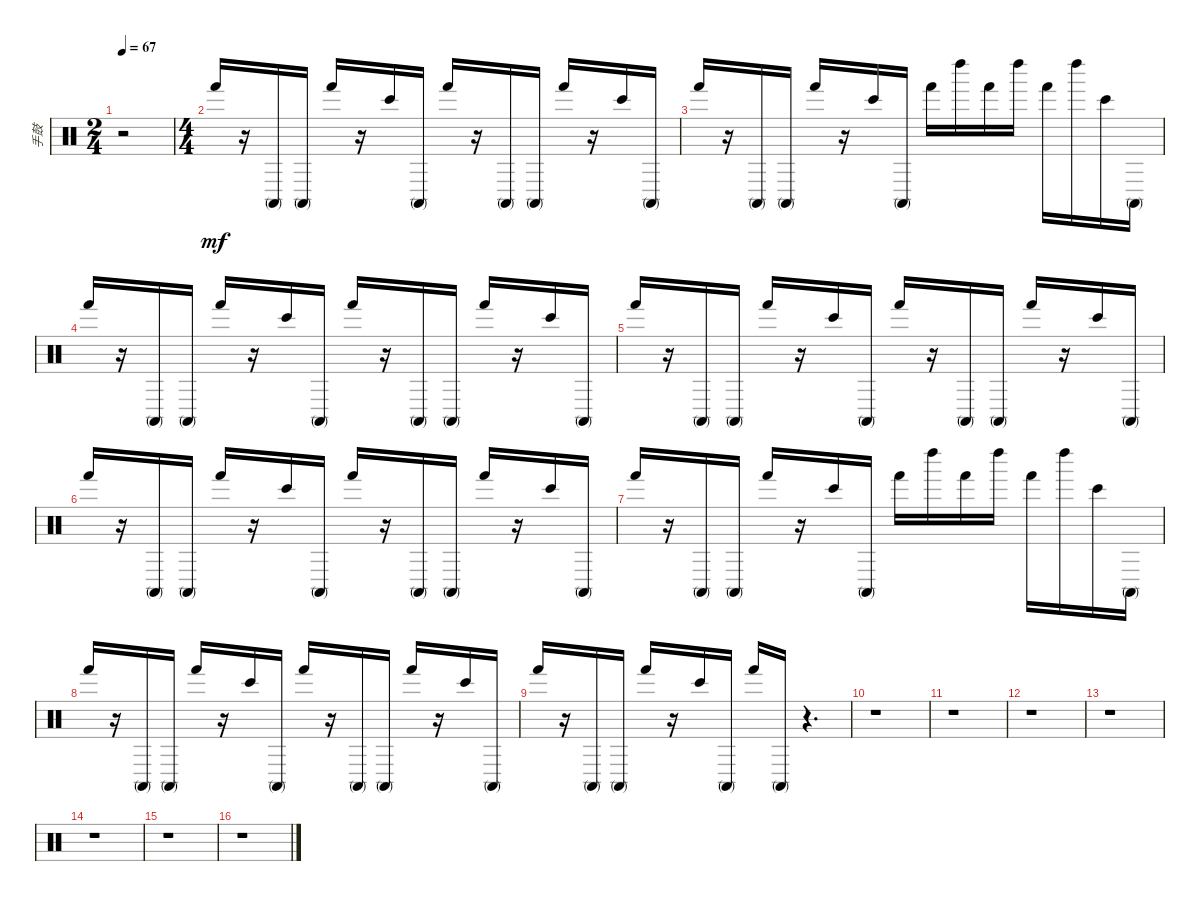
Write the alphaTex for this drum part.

\track ("手鼓" "手鼓") {instrument percussion}
\staff {score}
\articulation defaults
\ts (2 4)
\tempo 67
\clef neutral
\ks c
r.2{dy mf} |
\ts (4 4)
"Hand (hit)".16 r.16 "Conga high (mute)".16 "Conga high (mute)".16 "Hand (hit)".16 r.16 "Bongo High (hit)".16 "Conga high (mute)".16 "Hand (hit)".16 r.16 "Conga high (mute)".16 "Conga high (mute)".16 "Hand (hit)".16 r.16 "Bongo High (hit)".16 "Conga high (mute)".16 |
"Hand (hit)".16 r.16 "Conga high (mute)".16 "Conga high (mute)".16 "Hand (hit)".16 r.16 "Bongo High (hit)".16 "Conga high (mute)".16 "Hand (hit)".16 "Left Maraca (hit)".16 "Hand (hit)".16 "Left Maraca (hit)".16 "Hand (hit)".16 "Left Maraca (hit)".16 "Bongo High (hit)".16 "Conga high (mute)".16 |
"Hand (hit)".16 r.16 "Conga high (mute)".16 "Conga high (mute)".16 "Hand (hit)".16 r.16 "Bongo High (hit)".16 "Conga high (mute)".16 "Hand (hit)".16 r.16 "Conga high (mute)".16 "Conga high (mute)".16 "Hand (hit)".16 r.16 "Bongo High (hit)".16 "Conga high (mute)".16 |
"Hand (hit)".16 r.16 "Conga high (mute)".16 "Conga high (mute)".16 "Hand (hit)".16 r.16 "Bongo High (hit)".16 "Conga high (mute)".16 "Hand (hit)".16 r.16 "Conga high (mute)".16 "Conga high (mute)".16 "Hand (hit)".16 r.16 "Bongo High (hit)".16 "Conga high (mute)".16 |
"Hand (hit)".16 r.16 "Conga high (mute)".16 "Conga high (mute)".16 "Hand (hit)".16 r.16 "Bongo High (hit)".16 "Conga high (mute)".16 "Hand (hit)".16 r.16 "Conga high (mute)".16 "Conga high (mute)".16 "Hand (hit)".16 r.16 "Bongo High (hit)".16 "Conga high (mute)".16 |
"Hand (hit)".16 r.16 "Conga high (mute)".16 "Conga high (mute)".16 "Hand (hit)".16 r.16 "Bongo High (hit)".16 "Conga high (mute)".16 "Hand (hit)".16 "Left Maraca (hit)".16 "Hand (hit)".16 "Left Maraca (hit)".16 "Hand (hit)".16 "Left Maraca (hit)".16 "Bongo High (hit)".16 "Conga high (mute)".16 |
"Hand (hit)".16 r.16 "Conga high (mute)".16 "Conga high (mute)".16 "Hand (hit)".16 r.16 "Bongo High (hit)".16 "Conga high (mute)".16 "Hand (hit)".16 r.16 "Conga high (mute)".16 "Conga high (mute)".16 "Hand (hit)".16 r.16 "Bongo High (hit)".16 "Conga high (mute)".16 |
"Hand (hit)".16 r.16 "Conga high (mute)".16 "Conga high (mute)".16 "Hand (hit)".16 r.16 "Bongo High (hit)".16 "Conga high (mute)".16 "Hand (hit)".16 "Conga high (mute)".16 r.4{d} |
r.1 |
r.1 |
r.1 |
r.1 |
r.1 |
r.1 |
r.1
